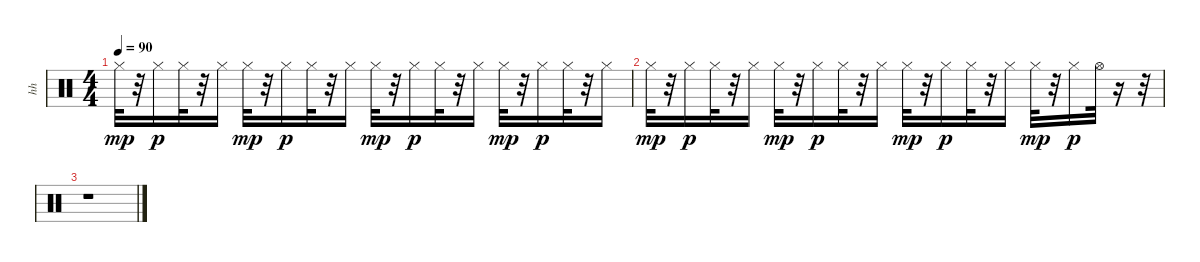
\track ("hh" "hh") {instrument percussion}
\staff {score}
\articulation defaults
\ts (4 4)
\tempo 90
\clef neutral
\ks c "Hi-Hat (closed)".32{dy mp}
r.32 "Hi-Hat (closed)".16{dy p} "Hi-Hat (closed)".32 r.32 "Hi-Hat (closed)".16 "Hi-Hat (closed)".32{dy mp} r.32 "Hi-Hat (closed)".16{dy p} "Hi-Hat (closed)".32 r.32 "Hi-Hat (closed)".16 "Hi-Hat (closed)".32{dy mp} r.32 "Hi-Hat (closed)".16{dy p} "Hi-Hat (closed)".32 r.32 "Hi-Hat (closed)".16 "Hi-Hat (closed)".32{dy mp} r.32 "Hi-Hat (closed)".16{dy p} "Hi-Hat (closed)".32 r.32 "Hi-Hat (closed)".16 |
"Hi-Hat (closed)".32{dy mp} r.32 "Hi-Hat (closed)".16{dy p} "Hi-Hat (closed)".32 r.32 "Hi-Hat (closed)".16 "Hi-Hat (closed)".32{dy mp} r.32 "Hi-Hat (closed)".16{dy p} "Hi-Hat (closed)".32 r.32 "Hi-Hat (closed)".16 "Hi-Hat (closed)".32{dy mp} r.32 "Hi-Hat (closed)".16{dy p} "Hi-Hat (closed)".32 r.32 "Hi-Hat (closed)".16 "Hi-Hat (closed)".32{dy mp} r.32 "Hi-Hat (closed)".16{dy p} "Hi-Hat (open)".32 r.16 r.32 |
r.1
